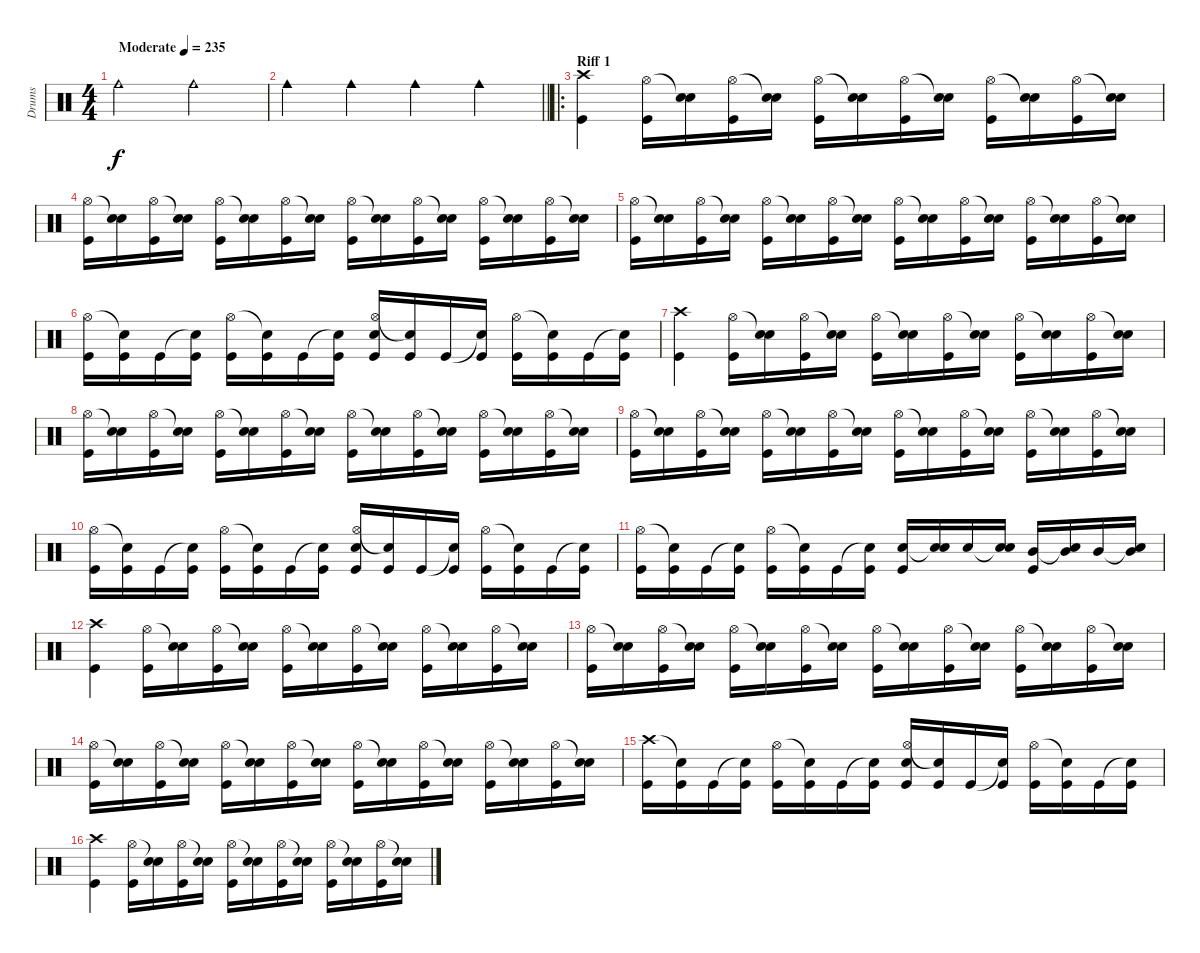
\track ("Drums" "Drums") {instrument percussion}
\staff {score}
\articulation defaults
\ts (4 4)
\tempo (235 "Moderate")
\clef neutral
\ks c "Cowbell medium (hit)".2{dy f} "Cowbell medium (hit)".2
|
\barLineRight lightlight "Cowbell medium (hit)".4 "Cowbell medium (hit)".4 "Cowbell medium (hit)".4 "Cowbell medium (hit)".4
|
\ro
\section ("" "Riff 1")
("Crash high (hit)" "Kick (hit)").4 ("Hi-Hat (open)" "Kick (hit)").16 ("Snare (hit)"{t} "Electric Snare (hit)").16 ("Hi-Hat (open)" "Kick (hit)").16 ("Snare (hit)"{t} "Electric Snare (hit)").16 ("Hi-Hat (open)" "Kick (hit)").16 ("Snare (hit)"{t} "Electric Snare (hit)").16 ("Hi-Hat (open)" "Kick (hit)").16 ("Snare (hit)"{t} "Electric Snare (hit)").16 ("Hi-Hat (open)" "Kick (hit)").16 ("Snare (hit)"{t} "Electric Snare (hit)").16 ("Hi-Hat (open)" "Kick (hit)").16 ("Snare (hit)"{t} "Electric Snare (hit)").16 |
("Hi-Hat (open)" "Kick (hit)").16 ("Snare (hit)"{t} "Electric Snare (hit)").16 ("Hi-Hat (open)" "Kick (hit)").16 ("Snare (hit)"{t} "Electric Snare (hit)").16 ("Hi-Hat (open)" "Kick (hit)").16 ("Snare (hit)"{t} "Electric Snare (hit)").16 ("Hi-Hat (open)" "Kick (hit)").16 ("Snare (hit)"{t} "Electric Snare (hit)").16 ("Hi-Hat (open)" "Kick (hit)").16 ("Snare (hit)"{t} "Electric Snare (hit)").16 ("Hi-Hat (open)" "Kick (hit)").16 ("Snare (hit)"{t} "Electric Snare (hit)").16 ("Hi-Hat (open)" "Kick (hit)").16 ("Snare (hit)"{t} "Electric Snare (hit)").16 ("Hi-Hat (open)" "Kick (hit)").16 ("Snare (hit)"{t} "Electric Snare (hit)").16 |
("Hi-Hat (open)" "Kick (hit)").16 ("Snare (hit)"{t} "Electric Snare (hit)").16 ("Hi-Hat (open)" "Kick (hit)").16 ("Snare (hit)"{t} "Electric Snare (hit)").16 ("Hi-Hat (open)" "Kick (hit)").16 ("Snare (hit)"{t} "Electric Snare (hit)").16 ("Hi-Hat (open)" "Kick (hit)").16 ("Snare (hit)"{t} "Electric Snare (hit)").16 ("Hi-Hat (open)" "Kick (hit)").16 ("Snare (hit)"{t} "Electric Snare (hit)").16 ("Hi-Hat (open)" "Kick (hit)").16 ("Snare (hit)"{t} "Electric Snare (hit)").16 ("Hi-Hat (open)" "Kick (hit)").16 ("Snare (hit)"{t} "Electric Snare (hit)").16 ("Hi-Hat (open)" "Kick (hit)").16 ("Snare (hit)"{t} "Electric Snare (hit)").16 |
("Hi-Hat (open)" "Kick (hit)").16 ("Snare (hit)"{t} "Kick (hit)").16 "Kick (hit)".16 ("Snare (hit)"{t} "Kick (hit)").16 ("Hi-Hat (open)" "Kick (hit)").16 ("Snare (hit)"{t} "Kick (hit)").16 "Kick (hit)".16 ("Snare (hit)"{t} "Kick (hit)").16 ("Hi-Hat (open)" "Electric Snare (hit)" "Kick (hit)").16 ("Snare (hit)"{t} "Kick (hit)").16 "Kick (hit)".16 ("Snare (hit)"{t} "Kick (hit)").16 ("Hi-Hat (open)" "Kick (hit)").16 ("Snare (hit)"{t} "Kick (hit)").16 "Kick (hit)".16 ("Snare (hit)"{t} "Kick (hit)").16 |
("Crash high (hit)" "Kick (hit)").4 ("Hi-Hat (open)" "Kick (hit)").16 ("Snare (hit)"{t} "Electric Snare (hit)").16 ("Hi-Hat (open)" "Kick (hit)").16 ("Snare (hit)"{t} "Electric Snare (hit)").16 ("Hi-Hat (open)" "Kick (hit)").16 ("Snare (hit)"{t} "Electric Snare (hit)").16 ("Hi-Hat (open)" "Kick (hit)").16 ("Snare (hit)"{t} "Electric Snare (hit)").16 ("Hi-Hat (open)" "Kick (hit)").16 ("Snare (hit)"{t} "Electric Snare (hit)").16 ("Hi-Hat (open)" "Kick (hit)").16 ("Snare (hit)"{t} "Electric Snare (hit)").16 |
("Hi-Hat (open)" "Kick (hit)").16 ("Snare (hit)"{t} "Electric Snare (hit)").16 ("Hi-Hat (open)" "Kick (hit)").16 ("Snare (hit)"{t} "Electric Snare (hit)").16 ("Hi-Hat (open)" "Kick (hit)").16 ("Snare (hit)"{t} "Electric Snare (hit)").16 ("Hi-Hat (open)" "Kick (hit)").16 ("Snare (hit)"{t} "Electric Snare (hit)").16 ("Hi-Hat (open)" "Kick (hit)").16 ("Snare (hit)"{t} "Electric Snare (hit)").16 ("Hi-Hat (open)" "Kick (hit)").16 ("Snare (hit)"{t} "Electric Snare (hit)").16 ("Hi-Hat (open)" "Kick (hit)").16 ("Snare (hit)"{t} "Electric Snare (hit)").16 ("Hi-Hat (open)" "Kick (hit)").16 ("Snare (hit)"{t} "Electric Snare (hit)").16 |
("Hi-Hat (open)" "Kick (hit)").16 ("Snare (hit)"{t} "Electric Snare (hit)").16 ("Hi-Hat (open)" "Kick (hit)").16 ("Snare (hit)"{t} "Electric Snare (hit)").16 ("Hi-Hat (open)" "Kick (hit)").16 ("Snare (hit)"{t} "Electric Snare (hit)").16 ("Hi-Hat (open)" "Kick (hit)").16 ("Snare (hit)"{t} "Electric Snare (hit)").16 ("Hi-Hat (open)" "Kick (hit)").16 ("Snare (hit)"{t} "Electric Snare (hit)").16 ("Hi-Hat (open)" "Kick (hit)").16 ("Snare (hit)"{t} "Electric Snare (hit)").16 ("Hi-Hat (open)" "Kick (hit)").16 ("Snare (hit)"{t} "Electric Snare (hit)").16 ("Hi-Hat (open)" "Kick (hit)").16 ("Snare (hit)"{t} "Electric Snare (hit)").16 |
("Hi-Hat (open)" "Kick (hit)").16 ("Snare (hit)"{t} "Kick (hit)").16 "Kick (hit)".16 ("Snare (hit)"{t} "Kick (hit)").16 ("Hi-Hat (open)" "Kick (hit)").16 ("Snare (hit)"{t} "Kick (hit)").16 "Kick (hit)".16 ("Snare (hit)"{t} "Kick (hit)").16 ("Hi-Hat (open)" "Electric Snare (hit)" "Kick (hit)").16 ("Snare (hit)"{t} "Kick (hit)").16 "Kick (hit)".16 ("Snare (hit)"{t} "Kick (hit)").16 ("Hi-Hat (open)" "Kick (hit)").16 ("Snare (hit)"{t} "Kick (hit)").16 "Kick (hit)".16 ("Snare (hit)"{t} "Kick (hit)").16 |
("Hi-Hat (open)" "Kick (hit)").16 ("Snare (hit)"{t} "Kick (hit)").16 "Kick (hit)".16 ("Snare (hit)"{t} "Kick (hit)").16 ("Hi-Hat (open)" "Kick (hit)").16 ("Snare (hit)"{t} "Kick (hit)").16 "Kick (hit)".16 ("Snare (hit)"{t} "Kick (hit)").16 ("Electric Snare (hit)" "Kick (hit)").16 ("Snare (hit)"{t} "Electric Snare (hit)").16 "Electric Snare (hit)".16 ("Snare (hit)"{t} "Electric Snare (hit)").16 ("Mid Tom (hit)" "Kick (hit)").16 ("Snare (hit)"{t} "Mid Tom (hit)").16 "Mid Tom (hit)".16 ("Snare (hit)"{t} "Mid Tom (hit)").16 |
("Crash high (hit)" "Kick (hit)").4 ("Hi-Hat (open)" "Kick (hit)").16 ("Snare (hit)"{t} "Electric Snare (hit)").16 ("Hi-Hat (open)" "Kick (hit)").16 ("Snare (hit)"{t} "Electric Snare (hit)").16 ("Hi-Hat (open)" "Kick (hit)").16 ("Snare (hit)"{t} "Electric Snare (hit)").16 ("Hi-Hat (open)" "Kick (hit)").16 ("Snare (hit)"{t} "Electric Snare (hit)").16 ("Hi-Hat (open)" "Kick (hit)").16 ("Snare (hit)"{t} "Electric Snare (hit)").16 ("Hi-Hat (open)" "Kick (hit)").16 ("Snare (hit)"{t} "Electric Snare (hit)").16 |
("Hi-Hat (open)" "Kick (hit)").16 ("Snare (hit)"{t} "Electric Snare (hit)").16 ("Hi-Hat (open)" "Kick (hit)").16 ("Snare (hit)"{t} "Electric Snare (hit)").16 ("Hi-Hat (open)" "Kick (hit)").16 ("Snare (hit)"{t} "Electric Snare (hit)").16 ("Hi-Hat (open)" "Kick (hit)").16 ("Snare (hit)"{t} "Electric Snare (hit)").16 ("Hi-Hat (open)" "Kick (hit)").16 ("Snare (hit)"{t} "Electric Snare (hit)").16 ("Hi-Hat (open)" "Kick (hit)").16 ("Snare (hit)"{t} "Electric Snare (hit)").16 ("Hi-Hat (open)" "Kick (hit)").16 ("Snare (hit)"{t} "Electric Snare (hit)").16 ("Hi-Hat (open)" "Kick (hit)").16 ("Snare (hit)"{t} "Electric Snare (hit)").16 |
("Hi-Hat (open)" "Kick (hit)").16 ("Snare (hit)"{t} "Electric Snare (hit)").16 ("Hi-Hat (open)" "Kick (hit)").16 ("Snare (hit)"{t} "Electric Snare (hit)").16 ("Hi-Hat (open)" "Kick (hit)").16 ("Snare (hit)"{t} "Electric Snare (hit)").16 ("Hi-Hat (open)" "Kick (hit)").16 ("Snare (hit)"{t} "Electric Snare (hit)").16 ("Hi-Hat (open)" "Kick (hit)").16 ("Snare (hit)"{t} "Electric Snare (hit)").16 ("Hi-Hat (open)" "Kick (hit)").16 ("Snare (hit)"{t} "Electric Snare (hit)").16 ("Hi-Hat (open)" "Kick (hit)").16 ("Snare (hit)"{t} "Electric Snare (hit)").16 ("Hi-Hat (open)" "Kick (hit)").16 ("Snare (hit)"{t} "Electric Snare (hit)").16 |
("Crash high (hit)" "Kick (hit)").16 ("Snare (hit)"{t} "Kick (hit)").16 "Kick (hit)".16 ("Snare (hit)"{t} "Kick (hit)").16 ("Hi-Hat (open)" "Kick (hit)").16 ("Snare (hit)"{t} "Kick (hit)").16 "Kick (hit)".16 ("Snare (hit)"{t} "Kick (hit)").16 ("Hi-Hat (open)" "Electric Snare (hit)" "Kick (hit)").16 ("Snare (hit)"{t} "Kick (hit)").16 "Kick (hit)".16 ("Snare (hit)"{t} "Kick (hit)").16 ("Hi-Hat (open)" "Kick (hit)").16 ("Snare (hit)"{t} "Kick (hit)").16 "Kick (hit)".16 ("Snare (hit)"{t} "Kick (hit)").16 |
("Crash high (hit)" "Kick (hit)").4 ("Hi-Hat (open)" "Kick (hit)").16 ("Snare (hit)"{t} "Electric Snare (hit)").16 ("Hi-Hat (open)" "Kick (hit)").16 ("Snare (hit)"{t} "Electric Snare (hit)").16 ("Hi-Hat (open)" "Kick (hit)").16 ("Snare (hit)"{t} "Electric Snare (hit)").16 ("Hi-Hat (open)" "Kick (hit)").16 ("Snare (hit)"{t} "Electric Snare (hit)").16 ("Hi-Hat (open)" "Kick (hit)").16 ("Snare (hit)"{t} "Electric Snare (hit)").16 ("Hi-Hat (open)" "Kick (hit)").16 ("Snare (hit)"{t} "Electric Snare (hit)").16
